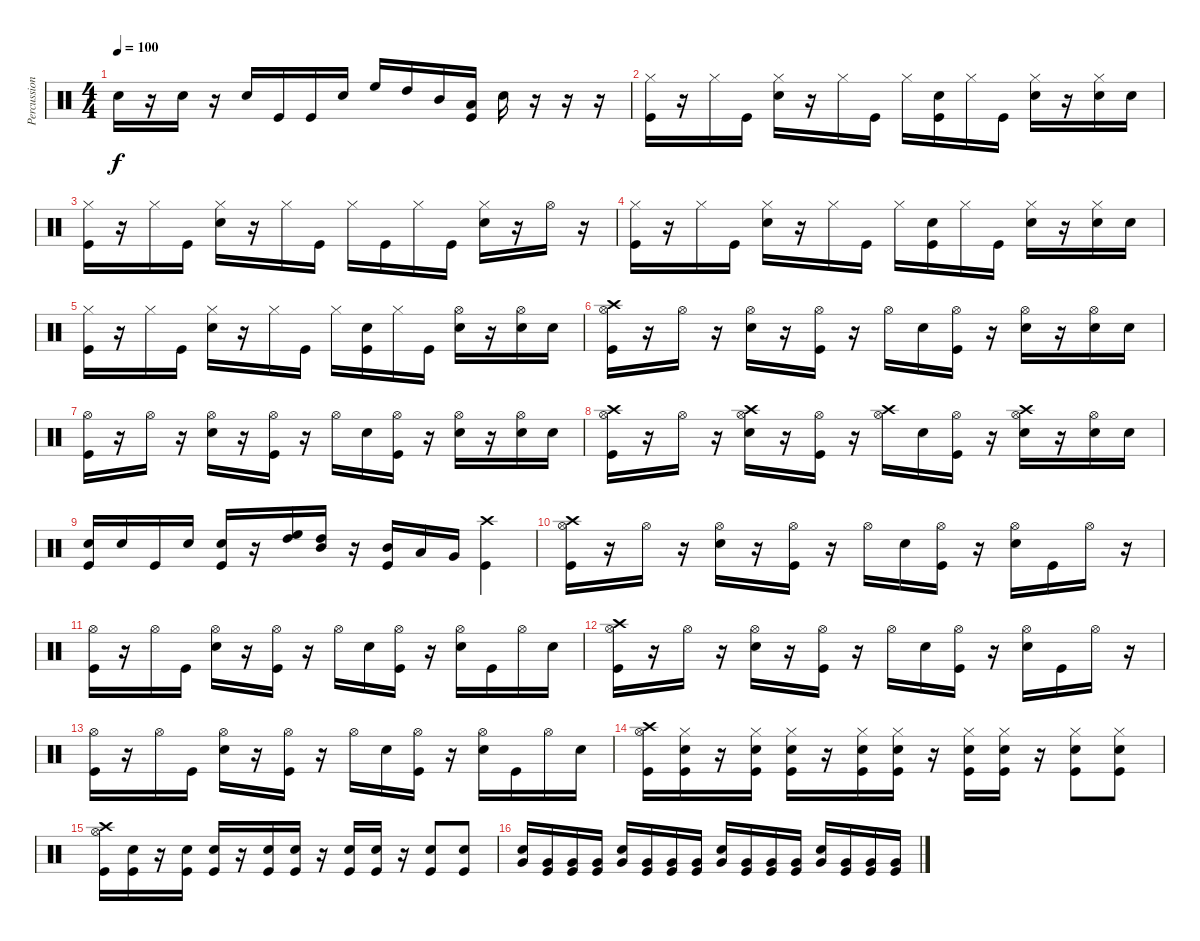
\track ("Percussion" "Percussion") {instrument percussion}
\staff {score}
\articulation defaults
\ts (4 4)
\tempo 100
\clef neutral
\ks c "Snare (hit) 2".16{dy f}
r.16 "Snare (hit) 2".16 r.16 "Snare (hit) 2".16 "Kick (hit)".16 "Kick (hit)".16 "Snare (hit) 2".16 "High Floor Tom (hit)".16 "High Tom (hit)".16 "Mid Tom (hit)".16 ("Low Tom (hit)" "Kick (hit)").16 "Snare (hit) 2".16 r.16 r.16 r.16 |
("Hi-Hat (closed)" "Kick (hit)").16 r.16 "Hi-Hat (closed)".16 "Kick (hit)".16 ("Hi-Hat (closed)" "Snare (hit) 2").16 r.16 "Hi-Hat (closed)".16 "Kick (hit)".16 "Hi-Hat (closed)".16 ("Snare (hit) 2" "Kick (hit)").16 "Hi-Hat (closed)".16 "Kick (hit)".16 ("Hi-Hat (closed)" "Snare (hit) 2").16 r.16 ("Hi-Hat (closed)" "Snare (hit) 2").16 "Snare (hit) 2".16 |
("Hi-Hat (closed)" "Kick (hit)").16 r.16 "Hi-Hat (closed)".16 "Kick (hit)".16 ("Hi-Hat (closed)" "Snare (hit) 2").16 r.16 "Hi-Hat (closed)".16 "Kick (hit)".16 "Hi-Hat (closed)".16 "Kick (hit)".16 "Hi-Hat (closed)".16 "Kick (hit)".16 ("Hi-Hat (closed)" "Snare (hit) 2").16 r.16 "Hi-Hat (open)".16 r.16 |
("Hi-Hat (closed)" "Kick (hit)").16 r.16 "Hi-Hat (closed)".16 "Kick (hit)".16 ("Hi-Hat (closed)" "Snare (hit) 2").16 r.16 "Hi-Hat (closed)".16 "Kick (hit)".16 "Hi-Hat (closed)".16 ("Snare (hit) 2" "Kick (hit)").16 "Hi-Hat (closed)".16 "Kick (hit)".16 ("Hi-Hat (closed)" "Snare (hit) 2").16 r.16 ("Hi-Hat (closed)" "Snare (hit) 2").16 "Snare (hit) 2".16 |
("Hi-Hat (closed)" "Kick (hit)").16 r.16 "Hi-Hat (closed)".16 "Kick (hit)".16 ("Hi-Hat (closed)" "Snare (hit) 2").16 r.16 "Hi-Hat (closed)".16 "Kick (hit)".16 "Hi-Hat (closed)".16 ("Snare (hit) 2" "Kick (hit)").16 "Hi-Hat (closed)".16 "Kick (hit)".16 ("Hi-Hat (open)" "Snare (hit) 2").16 r.16 ("Hi-Hat (open)" "Snare (hit) 2").16 "Snare (hit) 2".16 |
("Crash high (hit)" "Hi-Hat (open)" "Kick (hit)").16 r.16 "Hi-Hat (open)".16 r.16 ("Hi-Hat (open)" "Snare (hit) 2").16 r.16 ("Hi-Hat (open)" "Kick (hit)").16 r.16 "Hi-Hat (open)".16 "Snare (hit) 2".16 ("Hi-Hat (open)" "Kick (hit)").16 r.16 ("Hi-Hat (open)" "Snare (hit) 2").16 r.16 ("Hi-Hat (open)" "Snare (hit) 2").16 "Snare (hit) 2".16 |
("Hi-Hat (open)" "Kick (hit)").16 r.16 "Hi-Hat (open)".16 r.16 ("Hi-Hat (open)" "Snare (hit) 2").16 r.16 ("Hi-Hat (open)" "Kick (hit)").16 r.16 "Hi-Hat (open)".16 "Snare (hit) 2".16 ("Hi-Hat (open)" "Kick (hit)").16 r.16 ("Hi-Hat (open)" "Snare (hit) 2").16 r.16 ("Hi-Hat (open)" "Snare (hit) 2").16 "Snare (hit) 2".16 |
("Crash high (hit)" "Hi-Hat (open)" "Kick (hit)").16 r.16 "Hi-Hat (open)".16 r.16 ("Crash high (hit)" "Hi-Hat (open)" "Snare (hit) 2").16 r.16 ("Hi-Hat (open)" "Kick (hit)").16 r.16 ("Crash high (hit)" "Hi-Hat (open)").16 "Snare (hit) 2".16 ("Hi-Hat (open)" "Kick (hit)").16 r.16 ("Crash high (hit)" "Hi-Hat (open)" "Snare (hit) 2").16 r.16 ("Hi-Hat (open)" "Snare (hit) 2").16 "Snare (hit) 2".16 |
("Snare (hit) 2" "Kick (hit)").16 "Snare (hit) 2".16 "Kick (hit)".16 "Snare (hit) 2".16 ("Snare (hit) 2" "Kick (hit)").16 r.16 ("High Tom (hit)" "High Floor Tom (hit)").16 ("High Tom (hit)" "Mid Tom (hit)").16 r.16 ("Mid Tom (hit)" "Kick (hit)").16 "Low Tom (hit)".16 "Very Low Tom (hit)".16 ("Crash high (hit)" "Kick (hit)").4 |
("Crash high (hit)" "Hi-Hat (open)" "Kick (hit)").16 r.16 "Hi-Hat (open)".16 r.16 ("Hi-Hat (open)" "Snare (hit) 2").16 r.16 ("Hi-Hat (open)" "Kick (hit)").16 r.16 "Hi-Hat (open)".16 "Snare (hit) 2".16 ("Hi-Hat (open)" "Kick (hit)").16 r.16 ("Hi-Hat (open)" "Snare (hit) 2").16 "Kick (hit)".16 "Hi-Hat (open)".16 r.16 |
("Hi-Hat (open)" "Kick (hit)").16 r.16 "Hi-Hat (open)".16 "Kick (hit)".16 ("Hi-Hat (open)" "Snare (hit) 2").16 r.16 ("Hi-Hat (open)" "Kick (hit)").16 r.16 "Hi-Hat (open)".16 "Snare (hit) 2".16 ("Hi-Hat (open)" "Kick (hit)").16 r.16 ("Hi-Hat (open)" "Snare (hit) 2").16 "Kick (hit)".16 "Hi-Hat (open)".16 "Snare (hit) 2".16 |
("Crash high (hit)" "Hi-Hat (open)" "Kick (hit)").16 r.16 "Hi-Hat (open)".16 r.16 ("Hi-Hat (open)" "Snare (hit) 2").16 r.16 ("Hi-Hat (open)" "Kick (hit)").16 r.16 "Hi-Hat (open)".16 "Snare (hit) 2".16 ("Hi-Hat (open)" "Kick (hit)").16 r.16 ("Hi-Hat (open)" "Snare (hit) 2").16 "Kick (hit)".16 "Hi-Hat (open)".16 r.16 |
("Hi-Hat (open)" "Kick (hit)").16 r.16 "Hi-Hat (open)".16 "Kick (hit)".16 ("Hi-Hat (open)" "Snare (hit) 2").16 r.16 ("Hi-Hat (open)" "Kick (hit)").16 r.16 "Hi-Hat (open)".16 "Snare (hit) 2".16 ("Hi-Hat (open)" "Kick (hit)").16 r.16 ("Hi-Hat (open)" "Snare (hit) 2").16 "Kick (hit)".16 "Hi-Hat (open)".16 "Snare (hit) 2".16 |
("Crash high (hit)" "Hi-Hat (open)" "Kick (hit)").16 ("Hi-Hat (closed)" "Snare (hit) 2" "Kick (hit)").16 r.16 ("Hi-Hat (closed)" "Snare (hit) 2" "Kick (hit)").16 ("Hi-Hat (closed)" "Snare (hit) 2" "Kick (hit)").16 r.16 ("Hi-Hat (closed)" "Snare (hit) 2" "Kick (hit)").16 ("Hi-Hat (closed)" "Snare (hit) 2" "Kick (hit)").16 r.16 ("Hi-Hat (closed)" "Snare (hit) 2" "Kick (hit)").16 ("Hi-Hat (closed)" "Snare (hit) 2" "Kick (hit)").16 r.16 ("Hi-Hat (closed)" "Snare (hit) 2" "Kick (hit)").8 ("Hi-Hat (closed)" "Snare (hit) 2" "Kick (hit)").8 |
("Crash high (hit)" "Hi-Hat (open)" "Kick (hit)").16 ("Snare (hit) 2" "Kick (hit)").16 r.16 ("Snare (hit) 2" "Kick (hit)").16 ("Snare (hit) 2" "Kick (hit)").16 r.16 ("Snare (hit) 2" "Kick (hit)").16 ("Snare (hit) 2" "Kick (hit)").16 r.16 ("Snare (hit) 2" "Kick (hit)").16 ("Snare (hit) 2" "Kick (hit)").16 r.16 ("Snare (hit) 2" "Kick (hit)").8 ("Snare (hit) 2" "Kick (hit)").8 |
("Snare (hit) 2" "Very Low Tom (hit)").16 ("Kick (hit)" "Very Low Tom (hit)").16 ("Kick (hit)" "Very Low Tom (hit)").16 ("Kick (hit)" "Very Low Tom (hit)").16 ("Snare (hit) 2" "Very Low Tom (hit)").16 ("Kick (hit)" "Very Low Tom (hit)").16 ("Kick (hit)" "Very Low Tom (hit)").16 ("Kick (hit)" "Very Low Tom (hit)").16 ("Snare (hit) 2" "Very Low Tom (hit)").16 ("Kick (hit)" "Very Low Tom (hit)").16 ("Kick (hit)" "Very Low Tom (hit)").16 ("Kick (hit)" "Very Low Tom (hit)").16 ("Snare (hit) 2" "Very Low Tom (hit)").16 ("Kick (hit)" "Very Low Tom (hit)").16 ("Kick (hit)" "Very Low Tom (hit)").16 ("Kick (hit)" "Very Low Tom (hit)").16
